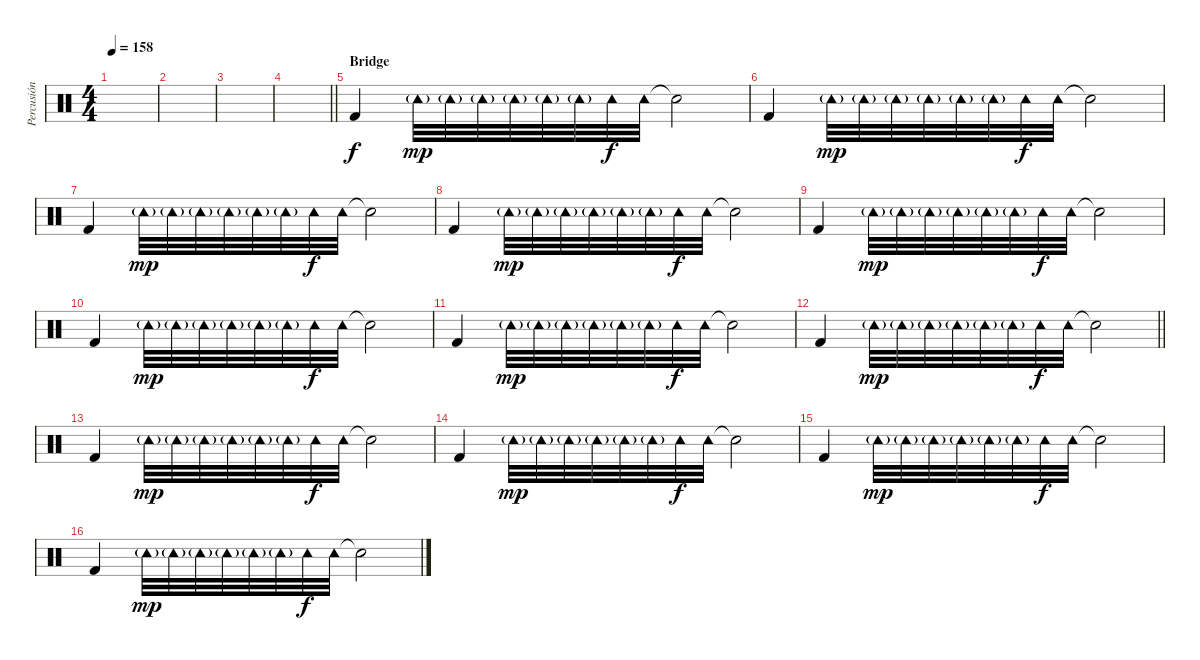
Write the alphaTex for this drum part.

\track ("Percusión" "Percusión") {instrument percussion}
\staff {score}
\articulation defaults
\ts (4 4)
\tempo 158
\clef neutral
\ks c
|
|
|
\barLineRight lightlight
|
\section ("" "Bridge")
"Kick (hit) 2".4{volume 10} "Tambourine (hit)"{g}.32{dy mp} "Tambourine (hit)"{g}.32 "Tambourine (hit)"{g}.32 "Tambourine (hit)"{g}.32 "Tambourine (hit)"{g}.32 "Tambourine (hit)"{g}.32 "Tambourine (hit)".32{dy f} "Tambourine (hit)".32 "Snare (hit)"{t}.2 |
"Kick (hit) 2".4 "Tambourine (hit)"{g}.32{dy mp} "Tambourine (hit)"{g}.32 "Tambourine (hit)"{g}.32 "Tambourine (hit)"{g}.32 "Tambourine (hit)"{g}.32 "Tambourine (hit)"{g}.32 "Tambourine (hit)".32{dy f} "Tambourine (hit)".32 "Snare (hit)"{t}.2 |
"Kick (hit) 2".4 "Tambourine (hit)"{g}.32{dy mp} "Tambourine (hit)"{g}.32 "Tambourine (hit)"{g}.32 "Tambourine (hit)"{g}.32 "Tambourine (hit)"{g}.32 "Tambourine (hit)"{g}.32 "Tambourine (hit)".32{dy f} "Tambourine (hit)".32 "Snare (hit)"{t}.2 |
"Kick (hit) 2".4 "Tambourine (hit)"{g}.32{dy mp} "Tambourine (hit)"{g}.32 "Tambourine (hit)"{g}.32 "Tambourine (hit)"{g}.32 "Tambourine (hit)"{g}.32 "Tambourine (hit)"{g}.32 "Tambourine (hit)".32{dy f} "Tambourine (hit)".32 "Snare (hit)"{t}.2 |
"Kick (hit) 2".4 "Tambourine (hit)"{g}.32{dy mp} "Tambourine (hit)"{g}.32 "Tambourine (hit)"{g}.32 "Tambourine (hit)"{g}.32 "Tambourine (hit)"{g}.32 "Tambourine (hit)"{g}.32 "Tambourine (hit)".32{dy f} "Tambourine (hit)".32 "Snare (hit)"{t}.2 |
"Kick (hit) 2".4 "Tambourine (hit)"{g}.32{dy mp} "Tambourine (hit)"{g}.32 "Tambourine (hit)"{g}.32 "Tambourine (hit)"{g}.32 "Tambourine (hit)"{g}.32 "Tambourine (hit)"{g}.32 "Tambourine (hit)".32{dy f} "Tambourine (hit)".32 "Snare (hit)"{t}.2 |
"Kick (hit) 2".4 "Tambourine (hit)"{g}.32{dy mp} "Tambourine (hit)"{g}.32 "Tambourine (hit)"{g}.32 "Tambourine (hit)"{g}.32 "Tambourine (hit)"{g}.32 "Tambourine (hit)"{g}.32 "Tambourine (hit)".32{dy f} "Tambourine (hit)".32 "Snare (hit)"{t}.2 |
\barLineRight lightlight "Kick (hit) 2".4 "Tambourine (hit)"{g}.32{dy mp} "Tambourine (hit)"{g}.32 "Tambourine (hit)"{g}.32 "Tambourine (hit)"{g}.32 "Tambourine (hit)"{g}.32 "Tambourine (hit)"{g}.32 "Tambourine (hit)".32{dy f} "Tambourine (hit)".32 "Snare (hit)"{t}.2
|
\section ("" "")
"Kick (hit) 2".4{volume 10} "Tambourine (hit)"{g}.32{dy mp} "Tambourine (hit)"{g}.32 "Tambourine (hit)"{g}.32 "Tambourine (hit)"{g}.32 "Tambourine (hit)"{g}.32 "Tambourine (hit)"{g}.32 "Tambourine (hit)".32{dy f} "Tambourine (hit)".32 "Snare (hit)"{t}.2 |
"Kick (hit) 2".4 "Tambourine (hit)"{g}.32{dy mp} "Tambourine (hit)"{g}.32 "Tambourine (hit)"{g}.32 "Tambourine (hit)"{g}.32 "Tambourine (hit)"{g}.32 "Tambourine (hit)"{g}.32 "Tambourine (hit)".32{dy f} "Tambourine (hit)".32 "Snare (hit)"{t}.2 |
"Kick (hit) 2".4 "Tambourine (hit)"{g}.32{dy mp} "Tambourine (hit)"{g}.32 "Tambourine (hit)"{g}.32 "Tambourine (hit)"{g}.32 "Tambourine (hit)"{g}.32 "Tambourine (hit)"{g}.32 "Tambourine (hit)".32{dy f} "Tambourine (hit)".32 "Snare (hit)"{t}.2 |
"Kick (hit) 2".4 "Tambourine (hit)"{g}.32{dy mp} "Tambourine (hit)"{g}.32 "Tambourine (hit)"{g}.32 "Tambourine (hit)"{g}.32 "Tambourine (hit)"{g}.32 "Tambourine (hit)"{g}.32 "Tambourine (hit)".32{dy f} "Tambourine (hit)".32 "Snare (hit)"{t}.2
